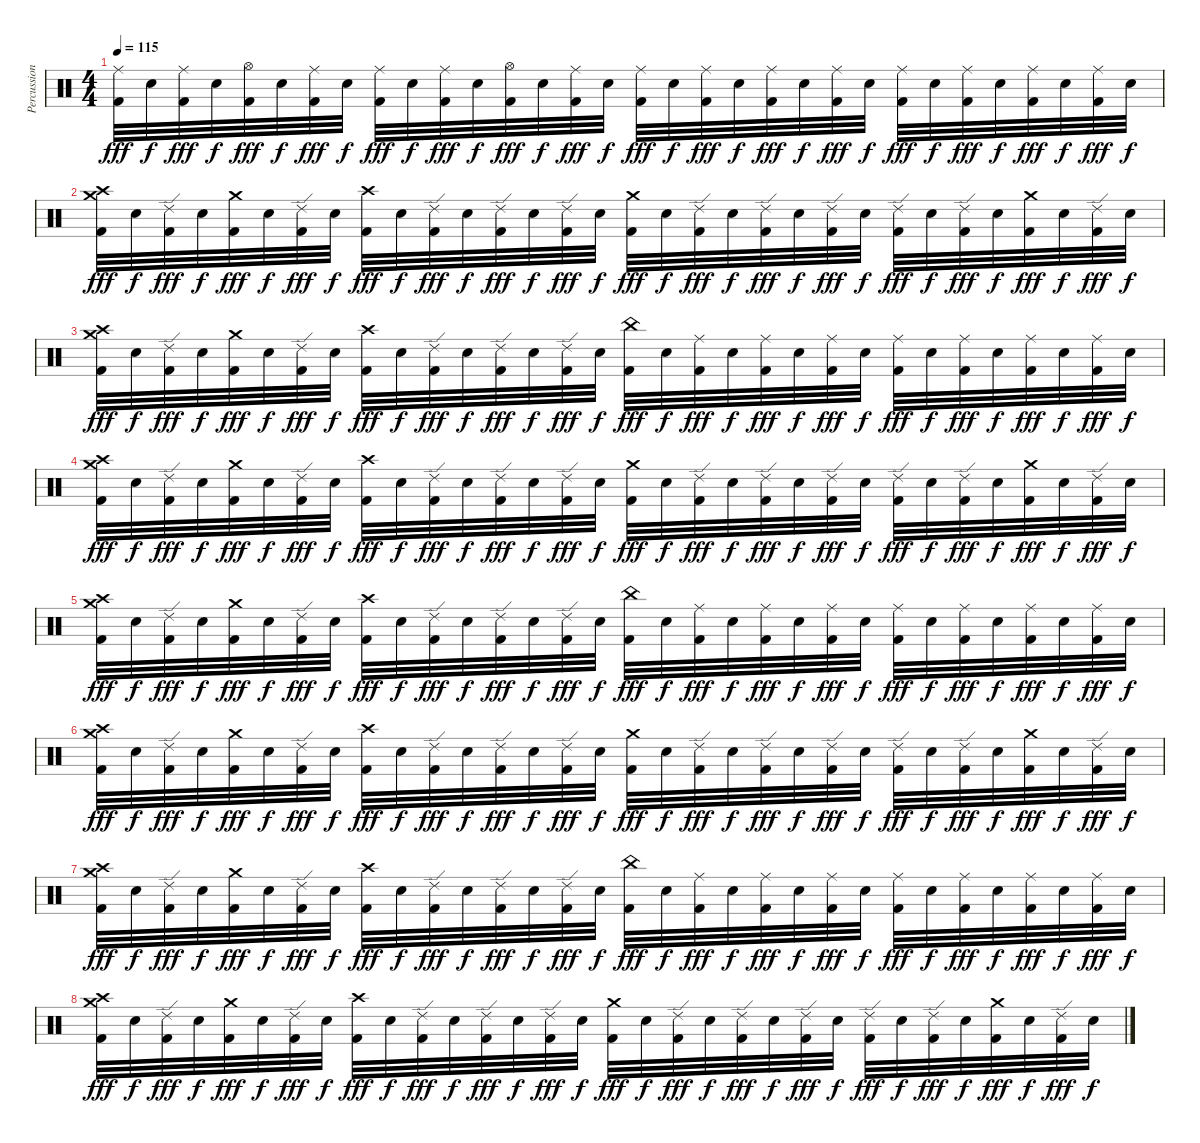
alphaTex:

\track ("Percussion" "Percussion") {instrument percussion}
\staff
\articulation defaults
\ts (4 4)
\tempo 115
\clef neutral
\ks c
("Ride (middle)" "Kick (hit) 2").32{dy fff} "Snare (hit) 2".32{dy f} ("Ride (middle)" "Kick (hit) 2").32{dy fff} "Snare (hit) 2".32{dy f} ("Hi-Hat (open)" "Kick (hit) 2").32{dy fff} "Snare (hit) 2".32{dy f} ("Ride (middle)" "Kick (hit) 2").32{dy fff} "Snare (hit) 2".32{dy f} ("Ride (middle)" "Kick (hit) 2").32{dy fff} "Snare (hit) 2".32{dy f} ("Ride (middle)" "Kick (hit) 2").32{dy fff} "Snare (hit) 2".32{dy f} ("Hi-Hat (open)" "Kick (hit) 2").32{dy fff} "Snare (hit) 2".32{dy f} ("Ride (middle)" "Kick (hit) 2").32{dy fff} "Snare (hit) 2".32{dy f} ("Ride (middle)" "Kick (hit) 2").32{dy fff} "Snare (hit) 2".32{dy f} ("Ride (middle)" "Kick (hit) 2").32{dy fff} "Snare (hit) 2".32{dy f} ("Ride (middle)" "Kick (hit) 2").32{dy fff} "Snare (hit) 2".32{dy f} ("Ride (middle)" "Kick (hit) 2").32{dy fff} "Snare (hit) 2".32{dy f} ("Ride (middle)" "Kick (hit) 2").32{dy fff} "Snare (hit) 2".32{dy f} ("Ride (middle)" "Kick (hit) 2").32{dy fff} "Snare (hit) 2".32{dy f} ("Ride (middle)" "Kick (hit) 2").32{dy fff} "Snare (hit) 2".32{dy f} ("Ride (middle)" "Kick (hit) 2").32{dy fff} "Snare (hit) 2".32{dy f} |
("Crash high (hit)" "Crash medium (hit)" "Kick (hit) 2").32{dy fff} "Snare (hit) 2".32{dy f} ("Ride (edge) 2" "Kick (hit) 2").32{dy fff} "Snare (hit) 2".32{dy f} ("Crash medium (hit)" "Kick (hit) 2").32{dy fff} "Snare (hit) 2".32{dy f} ("Ride (edge) 2" "Kick (hit) 2").32{dy fff} "Snare (hit) 2".32{dy f} ("Crash high (hit)" "Kick (hit) 2").32{dy fff} "Snare (hit) 2".32{dy f} ("Ride (edge) 2" "Kick (hit) 2").32{dy fff} "Snare (hit) 2".32{dy f} ("Ride (edge) 2" "Kick (hit) 2").32{dy fff} "Snare (hit) 2".32{dy f} ("Ride (edge) 2" "Kick (hit) 2").32{dy fff} "Snare (hit) 2".32{dy f} ("Crash medium (hit)" "Kick (hit) 2").32{dy fff} "Snare (hit) 2".32{dy f} ("Ride (edge) 2" "Kick (hit) 2").32{dy fff} "Snare (hit) 2".32{dy f} ("Ride (edge) 2" "Kick (hit) 2").32{dy fff} "Snare (hit) 2".32{dy f} ("Ride (edge) 2" "Kick (hit) 2").32{dy fff} "Snare (hit) 2".32{dy f} ("Ride (edge) 2" "Kick (hit) 2").32{dy fff} "Snare (hit) 2".32{dy f} ("Ride (edge) 2" "Kick (hit) 2").32{dy fff} "Snare (hit) 2".32{dy f} ("Crash medium (hit)" "Kick (hit) 2").32{dy fff} "Snare (hit) 2".32{dy f} ("Ride (edge) 2" "Kick (hit) 2").32{dy fff} "Snare (hit) 2".32{dy f} |
("Crash high (hit)" "Crash medium (hit)" "Kick (hit) 2").32{dy fff} "Snare (hit) 2".32{dy f} ("Ride (edge) 2" "Kick (hit) 2").32{dy fff} "Snare (hit) 2".32{dy f} ("Crash medium (hit)" "Kick (hit) 2").32{dy fff} "Snare (hit) 2".32{dy f} ("Ride (edge) 2" "Kick (hit) 2").32{dy fff} "Snare (hit) 2".32{dy f} ("Crash high (hit)" "Kick (hit) 2").32{dy fff} "Snare (hit) 2".32{dy f} ("Ride (edge) 2" "Kick (hit) 2").32{dy fff} "Snare (hit) 2".32{dy f} ("Ride (edge) 2" "Kick (hit) 2").32{dy fff} "Snare (hit) 2".32{dy f} ("Ride (edge) 2" "Kick (hit) 2").32{dy fff} "Snare (hit) 2".32{dy f} ("China (hit)" "Kick (hit) 2").32{dy fff} "Snare (hit) 2".32{dy f} ("Ride (middle)" "Kick (hit) 2").32{dy fff} "Snare (hit) 2".32{dy f} ("Ride (middle)" "Kick (hit) 2").32{dy fff} "Snare (hit) 2".32{dy f} ("Ride (middle)" "Kick (hit) 2").32{dy fff} "Snare (hit) 2".32{dy f} ("Ride (middle)" "Kick (hit) 2").32{dy fff} "Snare (hit) 2".32{dy f} ("Ride (middle)" "Kick (hit) 2").32{dy fff} "Snare (hit) 2".32{dy f} ("Ride (middle)" "Kick (hit) 2").32{dy fff} "Snare (hit) 2".32{dy f} ("Ride (middle)" "Kick (hit) 2").32{dy fff} "Snare (hit) 2".32{dy f} |
("Crash high (hit)" "Crash medium (hit)" "Kick (hit) 2").32{dy fff} "Snare (hit) 2".32{dy f} ("Ride (edge) 2" "Kick (hit) 2").32{dy fff} "Snare (hit) 2".32{dy f} ("Crash medium (hit)" "Kick (hit) 2").32{dy fff} "Snare (hit) 2".32{dy f} ("Ride (edge) 2" "Kick (hit) 2").32{dy fff} "Snare (hit) 2".32{dy f} ("Crash high (hit)" "Kick (hit) 2").32{dy fff} "Snare (hit) 2".32{dy f} ("Ride (edge) 2" "Kick (hit) 2").32{dy fff} "Snare (hit) 2".32{dy f} ("Ride (edge) 2" "Kick (hit) 2").32{dy fff} "Snare (hit) 2".32{dy f} ("Ride (edge) 2" "Kick (hit) 2").32{dy fff} "Snare (hit) 2".32{dy f} ("Crash medium (hit)" "Kick (hit) 2").32{dy fff} "Snare (hit) 2".32{dy f} ("Ride (edge) 2" "Kick (hit) 2").32{dy fff} "Snare (hit) 2".32{dy f} ("Ride (edge) 2" "Kick (hit) 2").32{dy fff} "Snare (hit) 2".32{dy f} ("Ride (edge) 2" "Kick (hit) 2").32{dy fff} "Snare (hit) 2".32{dy f} ("Ride (edge) 2" "Kick (hit) 2").32{dy fff} "Snare (hit) 2".32{dy f} ("Ride (edge) 2" "Kick (hit) 2").32{dy fff} "Snare (hit) 2".32{dy f} ("Crash medium (hit)" "Kick (hit) 2").32{dy fff} "Snare (hit) 2".32{dy f} ("Ride (edge) 2" "Kick (hit) 2").32{dy fff} "Snare (hit) 2".32{dy f} |
("Crash high (hit)" "Crash medium (hit)" "Kick (hit) 2").32{dy fff} "Snare (hit) 2".32{dy f} ("Ride (edge) 2" "Kick (hit) 2").32{dy fff} "Snare (hit) 2".32{dy f} ("Crash medium (hit)" "Kick (hit) 2").32{dy fff} "Snare (hit) 2".32{dy f} ("Ride (edge) 2" "Kick (hit) 2").32{dy fff} "Snare (hit) 2".32{dy f} ("Crash high (hit)" "Kick (hit) 2").32{dy fff} "Snare (hit) 2".32{dy f} ("Ride (edge) 2" "Kick (hit) 2").32{dy fff} "Snare (hit) 2".32{dy f} ("Ride (edge) 2" "Kick (hit) 2").32{dy fff} "Snare (hit) 2".32{dy f} ("Ride (edge) 2" "Kick (hit) 2").32{dy fff} "Snare (hit) 2".32{dy f} ("China (hit)" "Kick (hit) 2").32{dy fff} "Snare (hit) 2".32{dy f} ("Ride (middle)" "Kick (hit) 2").32{dy fff} "Snare (hit) 2".32{dy f} ("Ride (middle)" "Kick (hit) 2").32{dy fff} "Snare (hit) 2".32{dy f} ("Ride (middle)" "Kick (hit) 2").32{dy fff} "Snare (hit) 2".32{dy f} ("Ride (middle)" "Kick (hit) 2").32{dy fff} "Snare (hit) 2".32{dy f} ("Ride (middle)" "Kick (hit) 2").32{dy fff} "Snare (hit) 2".32{dy f} ("Ride (middle)" "Kick (hit) 2").32{dy fff} "Snare (hit) 2".32{dy f} ("Ride (middle)" "Kick (hit) 2").32{dy fff} "Snare (hit) 2".32{dy f} |
("Crash high (hit)" "Crash medium (hit)" "Kick (hit) 2").32{dy fff} "Snare (hit) 2".32{dy f} ("Ride (edge) 2" "Kick (hit) 2").32{dy fff} "Snare (hit) 2".32{dy f} ("Crash medium (hit)" "Kick (hit) 2").32{dy fff} "Snare (hit) 2".32{dy f} ("Ride (edge) 2" "Kick (hit) 2").32{dy fff} "Snare (hit) 2".32{dy f} ("Crash high (hit)" "Kick (hit) 2").32{dy fff} "Snare (hit) 2".32{dy f} ("Ride (edge) 2" "Kick (hit) 2").32{dy fff} "Snare (hit) 2".32{dy f} ("Ride (edge) 2" "Kick (hit) 2").32{dy fff} "Snare (hit) 2".32{dy f} ("Ride (edge) 2" "Kick (hit) 2").32{dy fff} "Snare (hit) 2".32{dy f} ("Crash medium (hit)" "Kick (hit) 2").32{dy fff} "Snare (hit) 2".32{dy f} ("Ride (edge) 2" "Kick (hit) 2").32{dy fff} "Snare (hit) 2".32{dy f} ("Ride (edge) 2" "Kick (hit) 2").32{dy fff} "Snare (hit) 2".32{dy f} ("Ride (edge) 2" "Kick (hit) 2").32{dy fff} "Snare (hit) 2".32{dy f} ("Ride (edge) 2" "Kick (hit) 2").32{dy fff} "Snare (hit) 2".32{dy f} ("Ride (edge) 2" "Kick (hit) 2").32{dy fff} "Snare (hit) 2".32{dy f} ("Crash medium (hit)" "Kick (hit) 2").32{dy fff} "Snare (hit) 2".32{dy f} ("Ride (edge) 2" "Kick (hit) 2").32{dy fff} "Snare (hit) 2".32{dy f} |
("Crash high (hit)" "Crash medium (hit)" "Kick (hit) 2").32{dy fff} "Snare (hit) 2".32{dy f} ("Ride (edge) 2" "Kick (hit) 2").32{dy fff} "Snare (hit) 2".32{dy f} ("Crash medium (hit)" "Kick (hit) 2").32{dy fff} "Snare (hit) 2".32{dy f} ("Ride (edge) 2" "Kick (hit) 2").32{dy fff} "Snare (hit) 2".32{dy f} ("Crash high (hit)" "Kick (hit) 2").32{dy fff} "Snare (hit) 2".32{dy f} ("Ride (edge) 2" "Kick (hit) 2").32{dy fff} "Snare (hit) 2".32{dy f} ("Ride (edge) 2" "Kick (hit) 2").32{dy fff} "Snare (hit) 2".32{dy f} ("Ride (edge) 2" "Kick (hit) 2").32{dy fff} "Snare (hit) 2".32{dy f} ("China (hit)" "Kick (hit) 2").32{dy fff} "Snare (hit) 2".32{dy f} ("Ride (middle)" "Kick (hit) 2").32{dy fff} "Snare (hit) 2".32{dy f} ("Ride (middle)" "Kick (hit) 2").32{dy fff} "Snare (hit) 2".32{dy f} ("Ride (middle)" "Kick (hit) 2").32{dy fff} "Snare (hit) 2".32{dy f} ("Ride (middle)" "Kick (hit) 2").32{dy fff} "Snare (hit) 2".32{dy f} ("Ride (middle)" "Kick (hit) 2").32{dy fff} "Snare (hit) 2".32{dy f} ("Ride (middle)" "Kick (hit) 2").32{dy fff} "Snare (hit) 2".32{dy f} ("Ride (middle)" "Kick (hit) 2").32{dy fff} "Snare (hit) 2".32{dy f} |
("Crash high (hit)" "Crash medium (hit)" "Kick (hit) 2").32{dy fff} "Snare (hit) 2".32{dy f} ("Ride (edge) 2" "Kick (hit) 2").32{dy fff} "Snare (hit) 2".32{dy f} ("Crash medium (hit)" "Kick (hit) 2").32{dy fff} "Snare (hit) 2".32{dy f} ("Ride (edge) 2" "Kick (hit) 2").32{dy fff} "Snare (hit) 2".32{dy f} ("Crash high (hit)" "Kick (hit) 2").32{dy fff} "Snare (hit) 2".32{dy f} ("Ride (edge) 2" "Kick (hit) 2").32{dy fff} "Snare (hit) 2".32{dy f} ("Ride (edge) 2" "Kick (hit) 2").32{dy fff} "Snare (hit) 2".32{dy f} ("Ride (edge) 2" "Kick (hit) 2").32{dy fff} "Snare (hit) 2".32{dy f} ("Crash medium (hit)" "Kick (hit) 2").32{dy fff} "Snare (hit) 2".32{dy f} ("Ride (edge) 2" "Kick (hit) 2").32{dy fff} "Snare (hit) 2".32{dy f} ("Ride (edge) 2" "Kick (hit) 2").32{dy fff} "Snare (hit) 2".32{dy f} ("Ride (edge) 2" "Kick (hit) 2").32{dy fff} "Snare (hit) 2".32{dy f} ("Ride (edge) 2" "Kick (hit) 2").32{dy fff} "Snare (hit) 2".32{dy f} ("Ride (edge) 2" "Kick (hit) 2").32{dy fff} "Snare (hit) 2".32{dy f} ("Crash medium (hit)" "Kick (hit) 2").32{dy fff} "Snare (hit) 2".32{dy f} ("Ride (edge) 2" "Kick (hit) 2").32{dy fff} "Snare (hit) 2".32{dy f}
